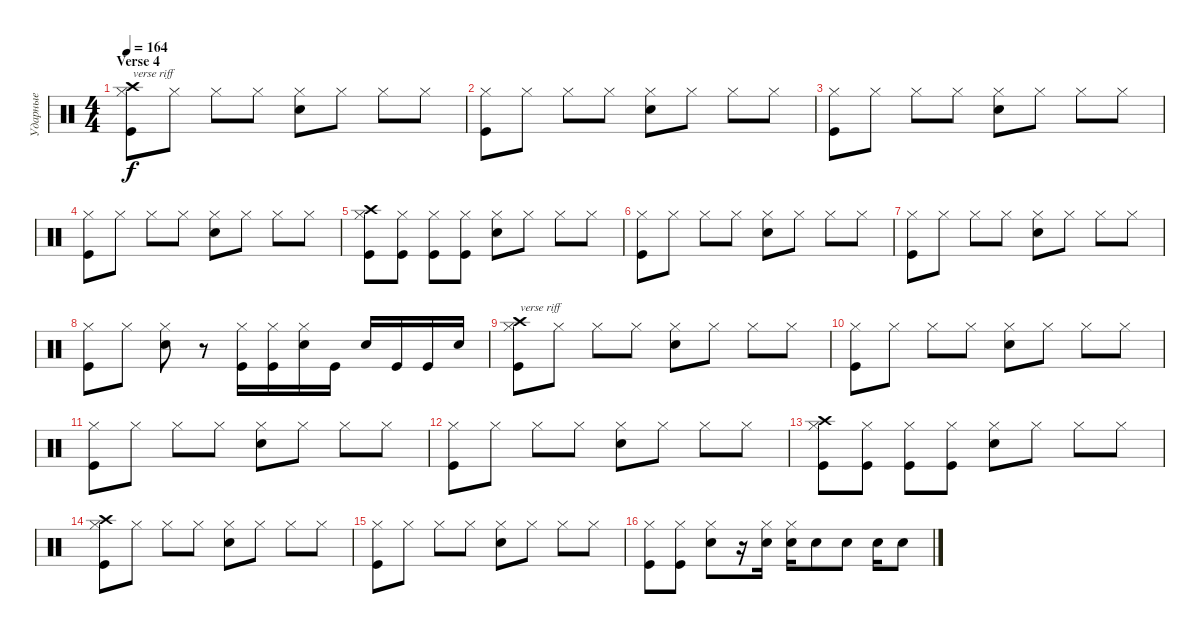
\track ("Ударные" "Ударные") {instrument percussion}
\staff {score}
\articulation defaults
\ts (4 4)
\section ("" "Verse 4")
\tempo 164
\clef neutral
\ks c
("Hi-Hat (closed)" "Crash high (hit)" "Kick (hit)").8{txt "verse riff" dy f} "Hi-Hat (closed)".8 "Hi-Hat (closed)".8 "Hi-Hat (closed)".8 ("Hi-Hat (closed)" "Snare (hit) 2").8 "Hi-Hat (closed)".8 "Hi-Hat (closed)".8 "Hi-Hat (closed)".8 |
("Hi-Hat (closed)" "Kick (hit)").8 "Hi-Hat (closed)".8 "Hi-Hat (closed)".8 "Hi-Hat (closed)".8 ("Hi-Hat (closed)" "Snare (hit) 2").8 "Hi-Hat (closed)".8 "Hi-Hat (closed)".8 "Hi-Hat (closed)".8 |
("Hi-Hat (closed)" "Kick (hit)").8 "Hi-Hat (closed)".8 "Hi-Hat (closed)".8 "Hi-Hat (closed)".8 ("Hi-Hat (closed)" "Snare (hit) 2").8 "Hi-Hat (closed)".8 "Hi-Hat (closed)".8 "Hi-Hat (closed)".8 |
("Hi-Hat (closed)" "Kick (hit)").8 "Hi-Hat (closed)".8 "Hi-Hat (closed)".8 "Hi-Hat (closed)".8 ("Hi-Hat (closed)" "Snare (hit) 2").8 "Hi-Hat (closed)".8 "Hi-Hat (closed)".8 "Hi-Hat (closed)".8 |
("Hi-Hat (closed)" "Crash high (hit)" "Kick (hit)").8 ("Hi-Hat (closed)" "Kick (hit)").8 ("Hi-Hat (closed)" "Kick (hit)").8 ("Hi-Hat (closed)" "Kick (hit)").8 ("Hi-Hat (closed)" "Snare (hit) 2").8 "Hi-Hat (closed)".8 "Hi-Hat (closed)".8 "Hi-Hat (closed)".8 |
("Hi-Hat (closed)" "Kick (hit)").8 "Hi-Hat (closed)".8 "Hi-Hat (closed)".8 "Hi-Hat (closed)".8 ("Hi-Hat (closed)" "Snare (hit) 2").8 "Hi-Hat (closed)".8 "Hi-Hat (closed)".8 "Hi-Hat (closed)".8 |
("Hi-Hat (closed)" "Kick (hit)").8 "Hi-Hat (closed)".8 "Hi-Hat (closed)".8 "Hi-Hat (closed)".8 ("Hi-Hat (closed)" "Snare (hit) 2").8 "Hi-Hat (closed)".8 "Hi-Hat (closed)".8 "Hi-Hat (closed)".8 |
("Hi-Hat (closed)" "Kick (hit)").8 "Hi-Hat (closed)".8 ("Hi-Hat (closed)" "Snare (hit) 2").8 r.8 ("Hi-Hat (closed)" "Kick (hit)").16 ("Hi-Hat (closed)" "Kick (hit)").16 ("Hi-Hat (closed)" "Snare (hit) 2").16 "Kick (hit)".16 "Snare (hit) 2".16 "Kick (hit)".16 "Kick (hit)".16 "Snare (hit) 2".16 |
("Hi-Hat (closed)" "Crash high (hit)" "Kick (hit)").8{txt "verse riff"} "Hi-Hat (closed)".8 "Hi-Hat (closed)".8 "Hi-Hat (closed)".8 ("Hi-Hat (closed)" "Snare (hit) 2").8 "Hi-Hat (closed)".8 "Hi-Hat (closed)".8 "Hi-Hat (closed)".8 |
("Hi-Hat (closed)" "Kick (hit)").8 "Hi-Hat (closed)".8 "Hi-Hat (closed)".8 "Hi-Hat (closed)".8 ("Hi-Hat (closed)" "Snare (hit) 2").8 "Hi-Hat (closed)".8 "Hi-Hat (closed)".8 "Hi-Hat (closed)".8 |
("Hi-Hat (closed)" "Kick (hit)").8 "Hi-Hat (closed)".8 "Hi-Hat (closed)".8 "Hi-Hat (closed)".8 ("Hi-Hat (closed)" "Snare (hit) 2").8 "Hi-Hat (closed)".8 "Hi-Hat (closed)".8 "Hi-Hat (closed)".8 |
("Hi-Hat (closed)" "Kick (hit)").8 "Hi-Hat (closed)".8 "Hi-Hat (closed)".8 "Hi-Hat (closed)".8 ("Hi-Hat (closed)" "Snare (hit) 2").8 "Hi-Hat (closed)".8 "Hi-Hat (closed)".8 "Hi-Hat (closed)".8 |
("Hi-Hat (closed)" "Crash high (hit)" "Kick (hit)").8 ("Hi-Hat (closed)" "Kick (hit)").8 ("Hi-Hat (closed)" "Kick (hit)").8 ("Hi-Hat (closed)" "Kick (hit)").8 ("Hi-Hat (closed)" "Snare (hit) 2").8 "Hi-Hat (closed)".8 "Hi-Hat (closed)".8 "Hi-Hat (closed)".8 |
("Hi-Hat (closed)" "Crash high (hit)" "Kick (hit)").8 "Hi-Hat (closed)".8 "Hi-Hat (closed)".8 "Hi-Hat (closed)".8 ("Hi-Hat (closed)" "Snare (hit) 2").8 "Hi-Hat (closed)".8 "Hi-Hat (closed)".8 "Hi-Hat (closed)".8 |
("Hi-Hat (closed)" "Kick (hit)").8 "Hi-Hat (closed)".8 "Hi-Hat (closed)".8 "Hi-Hat (closed)".8 ("Hi-Hat (closed)" "Snare (hit) 2").8 "Hi-Hat (closed)".8 "Hi-Hat (closed)".8 "Hi-Hat (closed)".8 |
("Hi-Hat (closed)" "Kick (hit)").8 ("Hi-Hat (closed)" "Kick (hit)").8 ("Hi-Hat (closed)" "Snare (hit) 2").8 r.16 ("Hi-Hat (closed)" "Snare (hit) 2").16 ("Hi-Hat (closed)" "Snare (hit) 2").16 "Snare (hit) 2".8 "Snare (hit) 2".8 "Snare (hit) 2".16 "Snare (hit) 2".8
